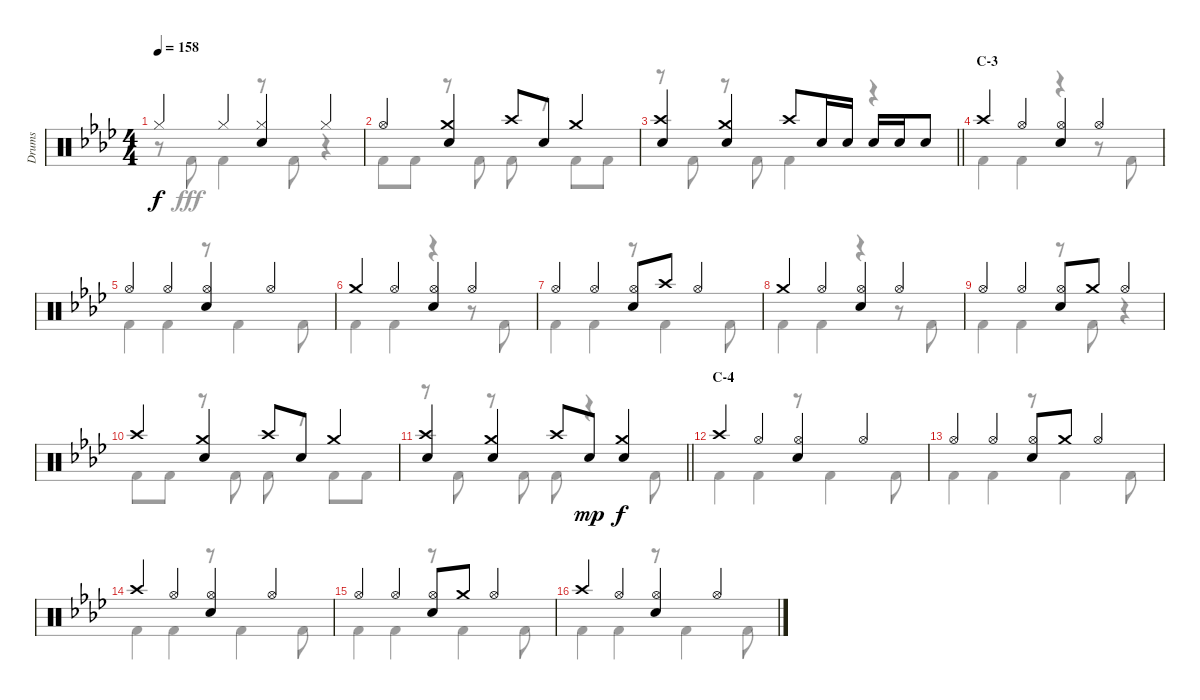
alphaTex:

\track ("Drums" "Drums") {instrument percussion}
\staff {score}
\articulation defaults
\voice
\ts (4 4)
\tempo 158
\clef neutral
\ks ab "Hi-Hat (closed)".4{dy f} "Hi-Hat (closed)".4
("Hi-Hat (closed)" "Snare (hit) 2").4 "Hi-Hat (closed)".4 |
"Hi-Hat (open)".4 ("Crash medium (hit)" "Snare (hit) 2").4 "Crash high (hit)".8 "Snare (hit) 2".8 "Crash medium (hit)".4 |
\barLineRight lightlight
("Crash high (hit)" "Snare (hit) 2").4 ("Crash medium (hit)" "Snare (hit) 2").4 "Crash high (hit)".8 "Snare (hit) 2".16 "Snare (hit) 2".16 "Snare (hit) 2".16 "Snare (hit) 2".16 "Snare (hit) 2".8 |
\section ("" "C-3")
"Crash high (hit)".4 "Hi-Hat (open)".4 ("Hi-Hat (open)" "Snare (hit) 2").4 "Hi-Hat (open)".4 |
"Hi-Hat (open)".4 "Hi-Hat (open)".4 ("Hi-Hat (open)" "Snare (hit) 2").4 "Hi-Hat (open)".4 |
"Crash medium (hit)".4 "Hi-Hat (open)".4 ("Hi-Hat (open)" "Snare (hit) 2").4 "Hi-Hat (open)".4 |
"Hi-Hat (open)".4 "Hi-Hat (open)".4 ("Hi-Hat (open)" "Snare (hit) 2").8 "Crash high (hit)".8 "Hi-Hat (open)".4 |
"Crash medium (hit)".4 "Hi-Hat (open)".4 ("Hi-Hat (open)" "Snare (hit) 2").4 "Hi-Hat (open)".4 |
"Hi-Hat (open)".4 "Hi-Hat (open)".4 ("Hi-Hat (open)" "Snare (hit) 2").8 "Crash medium (hit)".8 "Hi-Hat (open)".4 |
"Crash high (hit)".4 ("Crash medium (hit)" "Snare (hit) 2").4 "Crash high (hit)".8 "Snare (hit) 2".8 "Crash medium (hit)".4 |
\barLineRight lightlight
("Crash high (hit)" "Snare (hit) 2").4 ("Crash medium (hit)" "Snare (hit) 2").4 "Crash high (hit)".8 "Snare (hit) 2".8{dy mp} ("Crash medium (hit)" "Snare (hit) 2").4{dy f} |
\section ("" "C-4")
"Crash high (hit)".4 "Hi-Hat (open)".4 ("Hi-Hat (open)" "Snare (hit) 2").4 "Hi-Hat (open)".4 |
"Hi-Hat (open)".4 "Hi-Hat (open)".4 ("Hi-Hat (open)" "Snare (hit) 2").8 "Crash medium (hit)".8 "Hi-Hat (open)".4 |
"Crash high (hit)".4 "Hi-Hat (open)".4 ("Hi-Hat (open)" "Snare (hit) 2").4 "Hi-Hat (open)".4 |
"Hi-Hat (open)".4 "Hi-Hat (open)".4 ("Hi-Hat (open)" "Snare (hit) 2").8 "Crash medium (hit)".8 "Hi-Hat (open)".4 |
"Crash high (hit)".4 "Hi-Hat (open)".4 ("Hi-Hat (open)" "Snare (hit) 2").4 "Hi-Hat (open)".4
\voice
\clef neutral
\ottava regular
\simile none
\ks ab
r.8{dy fff} "Kick (hit) 2".8 "Kick (hit) 2".4 r.8 "Kick (hit) 2".8 r.4 |
"Kick (hit) 2".8 "Kick (hit) 2".8 r.8 "Kick (hit) 2".8 "Kick (hit) 2".8 r.8 "Kick (hit) 2".8 "Kick (hit) 2".8 |
\barLineRight lightlight
r.8 "Kick (hit) 2".8 r.8 "Kick (hit) 2".8 "Kick (hit) 2".4 r.4 |
"Kick (hit) 2".4 "Kick (hit) 2".4 r.4 r.8 "Kick (hit) 2".8 |
"Kick (hit) 2".4 "Kick (hit) 2".4 r.8 "Kick (hit) 2".4 "Kick (hit) 2".8 |
"Kick (hit) 2".4 "Kick (hit) 2".4 r.4 r.8 "Kick (hit) 2".8 |
"Kick (hit) 2".4 "Kick (hit) 2".4 r.8 "Kick (hit) 2".4 "Kick (hit) 2".8 |
"Kick (hit) 2".4 "Kick (hit) 2".4 r.4 r.8 "Kick (hit) 2".8 |
"Kick (hit) 2".4 "Kick (hit) 2".4 r.8 "Kick (hit) 2".8 r.4 |
"Kick (hit) 2".8 "Kick (hit) 2".8 r.8 "Kick (hit) 2".8 "Kick (hit) 2".8 r.8 "Kick (hit) 2".8 "Kick (hit) 2".8 |
\barLineRight lightlight
r.8 "Kick (hit) 2".8 r.8 "Kick (hit) 2".8 "Kick (hit) 2".8 r.4 "Kick (hit) 2".8 |
"Kick (hit) 2".4 "Kick (hit) 2".4 r.8 "Kick (hit) 2".4 "Kick (hit) 2".8 |
"Kick (hit) 2".4 "Kick (hit) 2".4 r.8 "Kick (hit) 2".4 "Kick (hit) 2".8 |
"Kick (hit) 2".4 "Kick (hit) 2".4 r.8 "Kick (hit) 2".4 "Kick (hit) 2".8 |
"Kick (hit) 2".4 "Kick (hit) 2".4 r.8 "Kick (hit) 2".4 "Kick (hit) 2".8 |
"Kick (hit) 2".4 "Kick (hit) 2".4 r.8 "Kick (hit) 2".4 "Kick (hit) 2".8
